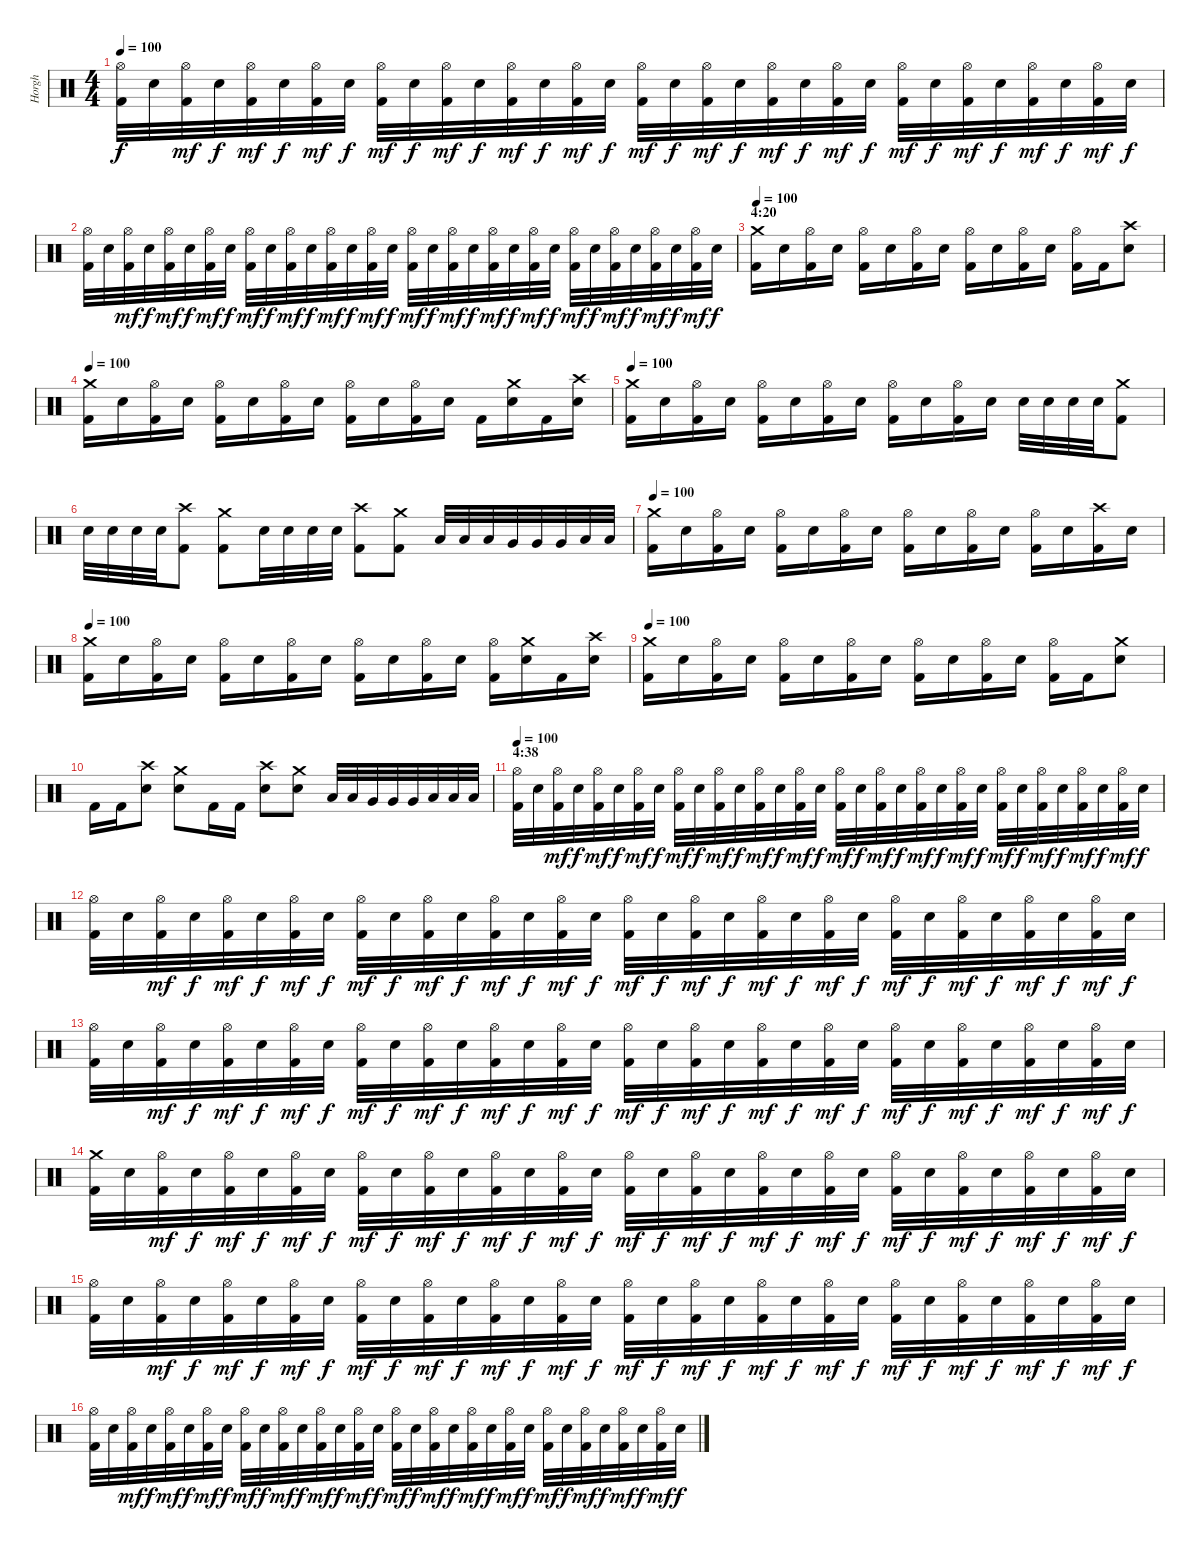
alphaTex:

\track ("Horgh" "Horgh") {instrument percussion}
\staff {score}
\articulation defaults
\ts (4 4)
\tempo 100
\clef neutral
\ks c
("Hi-Hat (open)" "Kick (hit) 2").32{dy f} "Electric Snare (hit)".32 ("Hi-Hat (open)" "Kick (hit) 2").32{dy mf} "Electric Snare (hit)".32{dy f} ("Hi-Hat (open)" "Kick (hit) 2").32{dy mf} "Electric Snare (hit)".32{dy f} ("Hi-Hat (open)" "Kick (hit) 2").32{dy mf} "Electric Snare (hit)".32{dy f} ("Hi-Hat (open)" "Kick (hit) 2").32{dy mf} "Electric Snare (hit)".32{dy f} ("Hi-Hat (open)" "Kick (hit) 2").32{dy mf} "Electric Snare (hit)".32{dy f} ("Hi-Hat (open)" "Kick (hit) 2").32{dy mf} "Electric Snare (hit)".32{dy f} ("Hi-Hat (open)" "Kick (hit) 2").32{dy mf} "Electric Snare (hit)".32{dy f} ("Hi-Hat (open)" "Kick (hit) 2").32{dy mf} "Electric Snare (hit)".32{dy f} ("Hi-Hat (open)" "Kick (hit) 2").32{dy mf} "Electric Snare (hit)".32{dy f} ("Hi-Hat (open)" "Kick (hit) 2").32{dy mf} "Electric Snare (hit)".32{dy f} ("Hi-Hat (open)" "Kick (hit) 2").32{dy mf} "Electric Snare (hit)".32{dy f} ("Hi-Hat (open)" "Kick (hit) 2").32{dy mf} "Electric Snare (hit)".32{dy f} ("Hi-Hat (open)" "Kick (hit) 2").32{dy mf} "Electric Snare (hit)".32{dy f} ("Hi-Hat (open)" "Kick (hit) 2").32{dy mf} "Electric Snare (hit)".32{dy f} ("Hi-Hat (open)" "Kick (hit) 2").32{dy mf} "Electric Snare (hit)".32{dy f} |
("Hi-Hat (open)" "Kick (hit) 2").32 "Electric Snare (hit)".32 ("Hi-Hat (open)" "Kick (hit) 2").32{dy mf} "Electric Snare (hit)".32{dy f} ("Hi-Hat (open)" "Kick (hit) 2").32{dy mf} "Electric Snare (hit)".32{dy f} ("Hi-Hat (open)" "Kick (hit) 2").32{dy mf} "Electric Snare (hit)".32{dy f} ("Hi-Hat (open)" "Kick (hit) 2").32{dy mf} "Electric Snare (hit)".32{dy f} ("Hi-Hat (open)" "Kick (hit) 2").32{dy mf} "Electric Snare (hit)".32{dy f} ("Hi-Hat (open)" "Kick (hit) 2").32{dy mf} "Electric Snare (hit)".32{dy f} ("Hi-Hat (open)" "Kick (hit) 2").32{dy mf} "Electric Snare (hit)".32{dy f} ("Hi-Hat (open)" "Kick (hit) 2").32{dy mf} "Electric Snare (hit)".32{dy f} ("Hi-Hat (open)" "Kick (hit) 2").32{dy mf} "Electric Snare (hit)".32{dy f} ("Hi-Hat (open)" "Kick (hit) 2").32{dy mf} "Electric Snare (hit)".32{dy f} ("Hi-Hat (open)" "Kick (hit) 2").32{dy mf} "Electric Snare (hit)".32{dy f} ("Hi-Hat (open)" "Kick (hit) 2").32{dy mf} "Electric Snare (hit)".32{dy f} ("Hi-Hat (open)" "Kick (hit) 2").32{dy mf} "Electric Snare (hit)".32{dy f} ("Hi-Hat (open)" "Kick (hit) 2").32{dy mf} "Electric Snare (hit)".32{dy f} ("Hi-Hat (open)" "Kick (hit) 2").32{dy mf} "Electric Snare (hit)".32{dy f} |
\section ("" "4:20")
\tempo 100
("Crash medium (hit)" "Kick (hit) 2").16 "Electric Snare (hit)".16 ("Hi-Hat (open)" "Kick (hit) 2").16 "Electric Snare (hit)".16 ("Hi-Hat (open)" "Kick (hit) 2").16 "Electric Snare (hit)".16 ("Hi-Hat (open)" "Kick (hit) 2").16 "Electric Snare (hit)".16 ("Hi-Hat (open)" "Kick (hit) 2").16 "Electric Snare (hit)".16 ("Hi-Hat (open)" "Kick (hit) 2").16 "Electric Snare (hit)".16 ("Hi-Hat (open)" "Kick (hit) 2").16 "Kick (hit) 2".16 ("Crash high (hit)" "Electric Snare (hit)").8 |
\tempo 100
("Crash medium (hit)" "Kick (hit) 2").16 "Electric Snare (hit)".16 ("Hi-Hat (open)" "Kick (hit) 2").16 "Electric Snare (hit)".16 ("Hi-Hat (open)" "Kick (hit) 2").16 "Electric Snare (hit)".16 ("Hi-Hat (open)" "Kick (hit) 2").16 "Electric Snare (hit)".16 ("Hi-Hat (open)" "Kick (hit) 2").16 "Electric Snare (hit)".16 ("Hi-Hat (open)" "Kick (hit) 2").16 "Electric Snare (hit)".16 "Kick (hit) 2".16 ("Crash medium (hit)" "Electric Snare (hit)").16 "Kick (hit) 2".16 ("Crash high (hit)" "Electric Snare (hit)").16 |
\tempo 100
("Crash medium (hit)" "Kick (hit) 2").16 "Electric Snare (hit)".16 ("Hi-Hat (open)" "Kick (hit) 2").16 "Electric Snare (hit)".16 ("Hi-Hat (open)" "Kick (hit) 2").16 "Electric Snare (hit)".16 ("Hi-Hat (open)" "Kick (hit) 2").16 "Electric Snare (hit)".16 ("Hi-Hat (open)" "Kick (hit) 2").16 "Electric Snare (hit)".16 ("Hi-Hat (open)" "Kick (hit) 2").16 "Electric Snare (hit)".16 "Electric Snare (hit)".32 "Electric Snare (hit)".32 "Electric Snare (hit)".32 "Electric Snare (hit)".32 ("Crash medium (hit)" "Kick (hit) 2").8 |
"Electric Snare (hit)".32 "Electric Snare (hit)".32 "Electric Snare (hit)".32 "Electric Snare (hit)".32 ("Crash high (hit)" "Kick (hit) 2").8 ("Crash medium (hit)" "Kick (hit) 2").8 "Electric Snare (hit)".32 "Electric Snare (hit)".32 "Electric Snare (hit)".32 "Electric Snare (hit)".32 ("Crash high (hit)" "Kick (hit) 2").8 ("Crash medium (hit)" "Kick (hit) 2").8 "Low Tom (hit)".32 "Low Tom (hit)".32 "Low Tom (hit)".32 "Very Low Tom (hit)".32 "Very Low Tom (hit)".32 "Very Low Tom (hit)".32 "Low Floor Tom (hit)".32 "Low Floor Tom (hit)".32 |
\tempo 100
("Crash medium (hit)" "Kick (hit) 2").16 "Electric Snare (hit)".16 ("Hi-Hat (open)" "Kick (hit) 2").16 "Electric Snare (hit)".16 ("Hi-Hat (open)" "Kick (hit) 2").16 "Electric Snare (hit)".16 ("Hi-Hat (open)" "Kick (hit) 2").16 "Electric Snare (hit)".16 ("Hi-Hat (open)" "Kick (hit) 2").16 "Electric Snare (hit)".16 ("Hi-Hat (open)" "Kick (hit) 2").16 "Electric Snare (hit)".16 ("Hi-Hat (open)" "Kick (hit) 2").16 "Electric Snare (hit)".16 ("Crash high (hit)" "Kick (hit) 2").16 "Electric Snare (hit)".16 |
\tempo 100
("Crash medium (hit)" "Kick (hit) 2").16 "Electric Snare (hit)".16 ("Hi-Hat (open)" "Kick (hit) 2").16 "Electric Snare (hit)".16 ("Hi-Hat (open)" "Kick (hit) 2").16 "Electric Snare (hit)".16 ("Hi-Hat (open)" "Kick (hit) 2").16 "Electric Snare (hit)".16 ("Hi-Hat (open)" "Kick (hit) 2").16 "Electric Snare (hit)".16 ("Hi-Hat (open)" "Kick (hit) 2").16 "Electric Snare (hit)".16 ("Hi-Hat (open)" "Kick (hit) 2").16 ("Crash medium (hit)" "Electric Snare (hit)").16 "Kick (hit) 2".16 ("Crash high (hit)" "Electric Snare (hit)").16 |
\tempo 100
("Crash medium (hit)" "Kick (hit) 2").16 "Electric Snare (hit)".16 ("Hi-Hat (open)" "Kick (hit) 2").16 "Electric Snare (hit)".16 ("Hi-Hat (open)" "Kick (hit) 2").16 "Electric Snare (hit)".16 ("Hi-Hat (open)" "Kick (hit) 2").16 "Electric Snare (hit)".16 ("Hi-Hat (open)" "Kick (hit) 2").16 "Electric Snare (hit)".16 ("Hi-Hat (open)" "Kick (hit) 2").16 "Electric Snare (hit)".16 ("Hi-Hat (open)" "Kick (hit) 2").16 "Kick (hit) 2".16 ("Crash medium (hit)" "Electric Snare (hit)").8 |
"Kick (hit) 2".16 "Kick (hit) 2".16 ("Crash high (hit)" "Electric Snare (hit)").8 ("Crash medium (hit)" "Electric Snare (hit)").8 "Kick (hit) 2".16 "Kick (hit) 2".16 ("Crash high (hit)" "Electric Snare (hit)").8 ("Crash medium (hit)" "Electric Snare (hit)").8 "Low Tom (hit)".32 "Low Tom (hit)".32 "Very Low Tom (hit)".32 "Very Low Tom (hit)".32 "Very Low Tom (hit)".32 "Low Floor Tom (hit)".32 "Low Floor Tom (hit)".32 "Low Floor Tom (hit)".32 |
\section ("" "4:38")
\tempo 100
("Hi-Hat (open)" "Kick (hit) 2").32 "Electric Snare (hit)".32 ("Hi-Hat (open)" "Kick (hit) 2").32{dy mf} "Electric Snare (hit)".32{dy f} ("Hi-Hat (open)" "Kick (hit) 2").32{dy mf} "Electric Snare (hit)".32{dy f} ("Hi-Hat (open)" "Kick (hit) 2").32{dy mf} "Electric Snare (hit)".32{dy f} ("Hi-Hat (open)" "Kick (hit) 2").32{dy mf} "Electric Snare (hit)".32{dy f} ("Hi-Hat (open)" "Kick (hit) 2").32{dy mf} "Electric Snare (hit)".32{dy f} ("Hi-Hat (open)" "Kick (hit) 2").32{dy mf} "Electric Snare (hit)".32{dy f} ("Hi-Hat (open)" "Kick (hit) 2").32{dy mf} "Electric Snare (hit)".32{dy f} ("Hi-Hat (open)" "Kick (hit) 2").32{dy mf} "Electric Snare (hit)".32{dy f} ("Hi-Hat (open)" "Kick (hit) 2").32{dy mf} "Electric Snare (hit)".32{dy f} ("Hi-Hat (open)" "Kick (hit) 2").32{dy mf} "Electric Snare (hit)".32{dy f} ("Hi-Hat (open)" "Kick (hit) 2").32{dy mf} "Electric Snare (hit)".32{dy f} ("Hi-Hat (open)" "Kick (hit) 2").32{dy mf} "Electric Snare (hit)".32{dy f} ("Hi-Hat (open)" "Kick (hit) 2").32{dy mf} "Electric Snare (hit)".32{dy f} ("Hi-Hat (open)" "Kick (hit) 2").32{dy mf} "Electric Snare (hit)".32{dy f} ("Hi-Hat (open)" "Kick (hit) 2").32{dy mf} "Electric Snare (hit)".32{dy f} |
("Hi-Hat (open)" "Kick (hit) 2").32 "Electric Snare (hit)".32 ("Hi-Hat (open)" "Kick (hit) 2").32{dy mf} "Electric Snare (hit)".32{dy f} ("Hi-Hat (open)" "Kick (hit) 2").32{dy mf} "Electric Snare (hit)".32{dy f} ("Hi-Hat (open)" "Kick (hit) 2").32{dy mf} "Electric Snare (hit)".32{dy f} ("Hi-Hat (open)" "Kick (hit) 2").32{dy mf} "Electric Snare (hit)".32{dy f} ("Hi-Hat (open)" "Kick (hit) 2").32{dy mf} "Electric Snare (hit)".32{dy f} ("Hi-Hat (open)" "Kick (hit) 2").32{dy mf} "Electric Snare (hit)".32{dy f} ("Hi-Hat (open)" "Kick (hit) 2").32{dy mf} "Electric Snare (hit)".32{dy f} ("Hi-Hat (open)" "Kick (hit) 2").32{dy mf} "Electric Snare (hit)".32{dy f} ("Hi-Hat (open)" "Kick (hit) 2").32{dy mf} "Electric Snare (hit)".32{dy f} ("Hi-Hat (open)" "Kick (hit) 2").32{dy mf} "Electric Snare (hit)".32{dy f} ("Hi-Hat (open)" "Kick (hit) 2").32{dy mf} "Electric Snare (hit)".32{dy f} ("Hi-Hat (open)" "Kick (hit) 2").32{dy mf} "Electric Snare (hit)".32{dy f} ("Hi-Hat (open)" "Kick (hit) 2").32{dy mf} "Electric Snare (hit)".32{dy f} ("Hi-Hat (open)" "Kick (hit) 2").32{dy mf} "Electric Snare (hit)".32{dy f} ("Hi-Hat (open)" "Kick (hit) 2").32{dy mf} "Electric Snare (hit)".32{dy f} |
("Hi-Hat (open)" "Kick (hit) 2").32 "Electric Snare (hit)".32 ("Hi-Hat (open)" "Kick (hit) 2").32{dy mf} "Electric Snare (hit)".32{dy f} ("Hi-Hat (open)" "Kick (hit) 2").32{dy mf} "Electric Snare (hit)".32{dy f} ("Hi-Hat (open)" "Kick (hit) 2").32{dy mf} "Electric Snare (hit)".32{dy f} ("Hi-Hat (open)" "Kick (hit) 2").32{dy mf} "Electric Snare (hit)".32{dy f} ("Hi-Hat (open)" "Kick (hit) 2").32{dy mf} "Electric Snare (hit)".32{dy f} ("Hi-Hat (open)" "Kick (hit) 2").32{dy mf} "Electric Snare (hit)".32{dy f} ("Hi-Hat (open)" "Kick (hit) 2").32{dy mf} "Electric Snare (hit)".32{dy f} ("Hi-Hat (open)" "Kick (hit) 2").32{dy mf} "Electric Snare (hit)".32{dy f} ("Hi-Hat (open)" "Kick (hit) 2").32{dy mf} "Electric Snare (hit)".32{dy f} ("Hi-Hat (open)" "Kick (hit) 2").32{dy mf} "Electric Snare (hit)".32{dy f} ("Hi-Hat (open)" "Kick (hit) 2").32{dy mf} "Electric Snare (hit)".32{dy f} ("Hi-Hat (open)" "Kick (hit) 2").32{dy mf} "Electric Snare (hit)".32{dy f} ("Hi-Hat (open)" "Kick (hit) 2").32{dy mf} "Electric Snare (hit)".32{dy f} ("Hi-Hat (open)" "Kick (hit) 2").32{dy mf} "Electric Snare (hit)".32{dy f} ("Hi-Hat (open)" "Kick (hit) 2").32{dy mf} "Electric Snare (hit)".32{dy f} |
("Crash medium (hit)" "Kick (hit) 2").32 "Electric Snare (hit)".32 ("Hi-Hat (open)" "Kick (hit) 2").32{dy mf} "Electric Snare (hit)".32{dy f} ("Hi-Hat (open)" "Kick (hit) 2").32{dy mf} "Electric Snare (hit)".32{dy f} ("Hi-Hat (open)" "Kick (hit) 2").32{dy mf} "Electric Snare (hit)".32{dy f} ("Hi-Hat (open)" "Kick (hit) 2").32{dy mf} "Electric Snare (hit)".32{dy f} ("Hi-Hat (open)" "Kick (hit) 2").32{dy mf} "Electric Snare (hit)".32{dy f} ("Hi-Hat (open)" "Kick (hit) 2").32{dy mf} "Electric Snare (hit)".32{dy f} ("Hi-Hat (open)" "Kick (hit) 2").32{dy mf} "Electric Snare (hit)".32{dy f} ("Hi-Hat (open)" "Kick (hit) 2").32{dy mf} "Electric Snare (hit)".32{dy f} ("Hi-Hat (open)" "Kick (hit) 2").32{dy mf} "Electric Snare (hit)".32{dy f} ("Hi-Hat (open)" "Kick (hit) 2").32{dy mf} "Electric Snare (hit)".32{dy f} ("Hi-Hat (open)" "Kick (hit) 2").32{dy mf} "Electric Snare (hit)".32{dy f} ("Hi-Hat (open)" "Kick (hit) 2").32{dy mf} "Electric Snare (hit)".32{dy f} ("Hi-Hat (open)" "Kick (hit) 2").32{dy mf} "Electric Snare (hit)".32{dy f} ("Hi-Hat (open)" "Kick (hit) 2").32{dy mf} "Electric Snare (hit)".32{dy f} ("Hi-Hat (open)" "Kick (hit) 2").32{dy mf} "Electric Snare (hit)".32{dy f} |
("Hi-Hat (open)" "Kick (hit) 2").32 "Electric Snare (hit)".32 ("Hi-Hat (open)" "Kick (hit) 2").32{dy mf} "Electric Snare (hit)".32{dy f} ("Hi-Hat (open)" "Kick (hit) 2").32{dy mf} "Electric Snare (hit)".32{dy f} ("Hi-Hat (open)" "Kick (hit) 2").32{dy mf} "Electric Snare (hit)".32{dy f} ("Hi-Hat (open)" "Kick (hit) 2").32{dy mf} "Electric Snare (hit)".32{dy f} ("Hi-Hat (open)" "Kick (hit) 2").32{dy mf} "Electric Snare (hit)".32{dy f} ("Hi-Hat (open)" "Kick (hit) 2").32{dy mf} "Electric Snare (hit)".32{dy f} ("Hi-Hat (open)" "Kick (hit) 2").32{dy mf} "Electric Snare (hit)".32{dy f} ("Hi-Hat (open)" "Kick (hit) 2").32{dy mf} "Electric Snare (hit)".32{dy f} ("Hi-Hat (open)" "Kick (hit) 2").32{dy mf} "Electric Snare (hit)".32{dy f} ("Hi-Hat (open)" "Kick (hit) 2").32{dy mf} "Electric Snare (hit)".32{dy f} ("Hi-Hat (open)" "Kick (hit) 2").32{dy mf} "Electric Snare (hit)".32{dy f} ("Hi-Hat (open)" "Kick (hit) 2").32{dy mf} "Electric Snare (hit)".32{dy f} ("Hi-Hat (open)" "Kick (hit) 2").32{dy mf} "Electric Snare (hit)".32{dy f} ("Hi-Hat (open)" "Kick (hit) 2").32{dy mf} "Electric Snare (hit)".32{dy f} ("Hi-Hat (open)" "Kick (hit) 2").32{dy mf} "Electric Snare (hit)".32{dy f} |
("Hi-Hat (open)" "Kick (hit) 2").32 "Electric Snare (hit)".32 ("Hi-Hat (open)" "Kick (hit) 2").32{dy mf} "Electric Snare (hit)".32{dy f} ("Hi-Hat (open)" "Kick (hit) 2").32{dy mf} "Electric Snare (hit)".32{dy f} ("Hi-Hat (open)" "Kick (hit) 2").32{dy mf} "Electric Snare (hit)".32{dy f} ("Hi-Hat (open)" "Kick (hit) 2").32{dy mf} "Electric Snare (hit)".32{dy f} ("Hi-Hat (open)" "Kick (hit) 2").32{dy mf} "Electric Snare (hit)".32{dy f} ("Hi-Hat (open)" "Kick (hit) 2").32{dy mf} "Electric Snare (hit)".32{dy f} ("Hi-Hat (open)" "Kick (hit) 2").32{dy mf} "Electric Snare (hit)".32{dy f} ("Hi-Hat (open)" "Kick (hit) 2").32{dy mf} "Electric Snare (hit)".32{dy f} ("Hi-Hat (open)" "Kick (hit) 2").32{dy mf} "Electric Snare (hit)".32{dy f} ("Hi-Hat (open)" "Kick (hit) 2").32{dy mf} "Electric Snare (hit)".32{dy f} ("Hi-Hat (open)" "Kick (hit) 2").32{dy mf} "Electric Snare (hit)".32{dy f} ("Hi-Hat (open)" "Kick (hit) 2").32{dy mf} "Electric Snare (hit)".32{dy f} ("Hi-Hat (open)" "Kick (hit) 2").32{dy mf} "Electric Snare (hit)".32{dy f} ("Hi-Hat (open)" "Kick (hit) 2").32{dy mf} "Electric Snare (hit)".32{dy f} ("Hi-Hat (open)" "Kick (hit) 2").32{dy mf} "Electric Snare (hit)".32{dy f}
